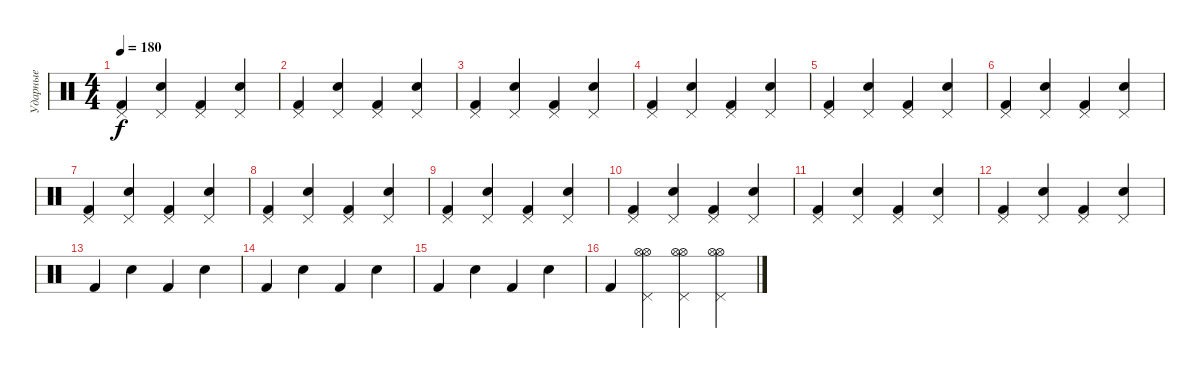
\track ("Ударные" "Ударные") {instrument percussion}
\staff {score}
\articulation defaults
\ts (4 4)
\tempo 180
\clef neutral
\ks c
("Kick (hit) 2" "Pedal Hi-Hat (hit)").4{dy f} ("Electric Snare (hit)" "Pedal Hi-Hat (hit)").4 ("Kick (hit) 2" "Pedal Hi-Hat (hit)").4 ("Electric Snare (hit)" "Pedal Hi-Hat (hit)").4 |
("Kick (hit) 2" "Pedal Hi-Hat (hit)").4 ("Electric Snare (hit)" "Pedal Hi-Hat (hit)").4 ("Kick (hit) 2" "Pedal Hi-Hat (hit)").4 ("Electric Snare (hit)" "Pedal Hi-Hat (hit)").4 |
("Kick (hit) 2" "Pedal Hi-Hat (hit)").4 ("Electric Snare (hit)" "Pedal Hi-Hat (hit)").4 ("Kick (hit) 2" "Pedal Hi-Hat (hit)").4 ("Electric Snare (hit)" "Pedal Hi-Hat (hit)").4 |
("Kick (hit) 2" "Pedal Hi-Hat (hit)").4 ("Electric Snare (hit)" "Pedal Hi-Hat (hit)").4 ("Kick (hit) 2" "Pedal Hi-Hat (hit)").4 ("Electric Snare (hit)" "Pedal Hi-Hat (hit)").4 |
("Kick (hit) 2" "Pedal Hi-Hat (hit)").4 ("Electric Snare (hit)" "Pedal Hi-Hat (hit)").4 ("Kick (hit) 2" "Pedal Hi-Hat (hit)").4 ("Electric Snare (hit)" "Pedal Hi-Hat (hit)").4 |
("Kick (hit) 2" "Pedal Hi-Hat (hit)").4 ("Electric Snare (hit)" "Pedal Hi-Hat (hit)").4 ("Kick (hit) 2" "Pedal Hi-Hat (hit)").4 ("Electric Snare (hit)" "Pedal Hi-Hat (hit)").4 |
("Kick (hit) 2" "Pedal Hi-Hat (hit)").4 ("Electric Snare (hit)" "Pedal Hi-Hat (hit)").4 ("Kick (hit) 2" "Pedal Hi-Hat (hit)").4 ("Electric Snare (hit)" "Pedal Hi-Hat (hit)").4 |
("Kick (hit) 2" "Pedal Hi-Hat (hit)").4 ("Electric Snare (hit)" "Pedal Hi-Hat (hit)").4 ("Kick (hit) 2" "Pedal Hi-Hat (hit)").4 ("Electric Snare (hit)" "Pedal Hi-Hat (hit)").4 |
("Kick (hit) 2" "Pedal Hi-Hat (hit)").4 ("Electric Snare (hit)" "Pedal Hi-Hat (hit)").4 ("Kick (hit) 2" "Pedal Hi-Hat (hit)").4 ("Electric Snare (hit)" "Pedal Hi-Hat (hit)").4 |
("Kick (hit) 2" "Pedal Hi-Hat (hit)").4 ("Electric Snare (hit)" "Pedal Hi-Hat (hit)").4 ("Kick (hit) 2" "Pedal Hi-Hat (hit)").4 ("Electric Snare (hit)" "Pedal Hi-Hat (hit)").4 |
("Kick (hit) 2" "Pedal Hi-Hat (hit)").4 ("Electric Snare (hit)" "Pedal Hi-Hat (hit)").4 ("Kick (hit) 2" "Pedal Hi-Hat (hit)").4 ("Electric Snare (hit)" "Pedal Hi-Hat (hit)").4 |
("Kick (hit) 2" "Pedal Hi-Hat (hit)").4 ("Electric Snare (hit)" "Pedal Hi-Hat (hit)").4 ("Kick (hit) 2" "Pedal Hi-Hat (hit)").4 ("Electric Snare (hit)" "Pedal Hi-Hat (hit)").4 |
"Kick (hit) 2".4 "Electric Snare (hit)".4 "Kick (hit) 2".4 "Electric Snare (hit)".4 |
"Kick (hit) 2".4 "Electric Snare (hit)".4 "Kick (hit) 2".4 "Electric Snare (hit)".4 |
"Kick (hit) 2".4 "Electric Snare (hit)".4 "Kick (hit) 2".4 "Electric Snare (hit)".4 |
"Kick (hit) 2".4 ("Hi-Hat (open)" "Pedal Hi-Hat (hit)" "Hi-Hat (open)").4 ("Hi-Hat (open)" "Pedal Hi-Hat (hit)" "Hi-Hat (open)").4 ("Hi-Hat (open)" "Pedal Hi-Hat (hit)" "Hi-Hat (open)").4
